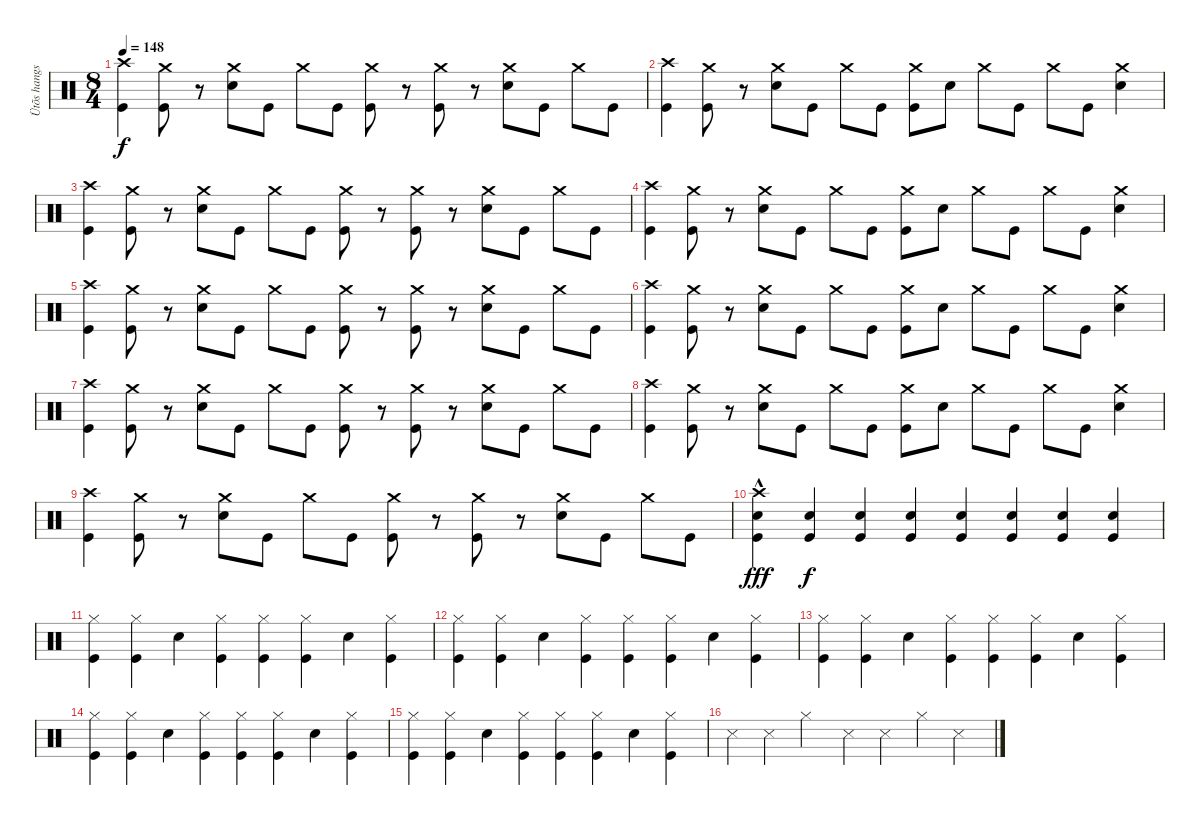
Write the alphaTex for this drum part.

\track ("Ütõs hangszer" "Ütõs hangs") {instrument percussion}
\staff {score}
\articulation defaults
\ts (8 4)
\tempo 148
\clef neutral
\ks c
("Crash high (hit)" "Kick (hit)").4{dy f} ("Crash medium (hit)" "Kick (hit)").8 r.8 ("Crash medium (hit)" "Electric Snare (hit)").8 "Kick (hit)".8 "Crash medium (hit)".8 "Kick (hit)".8 ("Crash medium (hit)" "Kick (hit)").8 r.8 ("Crash medium (hit)" "Kick (hit)").8 r.8 ("Crash medium (hit)" "Electric Snare (hit)").8 "Kick (hit)".8 "Crash medium (hit)".8 "Kick (hit)".8 |
("Crash high (hit)" "Kick (hit)").4 ("Crash medium (hit)" "Kick (hit)").8 r.8 ("Crash medium (hit)" "Electric Snare (hit)").8 "Kick (hit)".8 "Crash medium (hit)".8 "Kick (hit)".8 ("Crash medium (hit)" "Kick (hit)").8 "Electric Snare (hit)".8 "Crash medium (hit)".8 "Kick (hit)".8 "Crash medium (hit)".8 "Kick (hit)".8 ("Crash medium (hit)" "Electric Snare (hit)").4 |
("Crash high (hit)" "Kick (hit)").4 ("Crash medium (hit)" "Kick (hit)").8 r.8 ("Crash medium (hit)" "Electric Snare (hit)").8 "Kick (hit)".8 "Crash medium (hit)".8 "Kick (hit)".8 ("Crash medium (hit)" "Kick (hit)").8 r.8 ("Crash medium (hit)" "Kick (hit)").8 r.8 ("Crash medium (hit)" "Electric Snare (hit)").8 "Kick (hit)".8 "Crash medium (hit)".8 "Kick (hit)".8 |
("Crash high (hit)" "Kick (hit)").4 ("Crash medium (hit)" "Kick (hit)").8 r.8 ("Crash medium (hit)" "Electric Snare (hit)").8 "Kick (hit)".8 "Crash medium (hit)".8 "Kick (hit)".8 ("Crash medium (hit)" "Kick (hit)").8 "Electric Snare (hit)".8 "Crash medium (hit)".8 "Kick (hit)".8 "Crash medium (hit)".8 "Kick (hit)".8 ("Crash medium (hit)" "Electric Snare (hit)").4 |
("Crash high (hit)" "Kick (hit)").4 ("Crash medium (hit)" "Kick (hit)").8 r.8 ("Crash medium (hit)" "Electric Snare (hit)").8 "Kick (hit)".8 "Crash medium (hit)".8 "Kick (hit)".8 ("Crash medium (hit)" "Kick (hit)").8 r.8 ("Crash medium (hit)" "Kick (hit)").8 r.8 ("Crash medium (hit)" "Electric Snare (hit)").8 "Kick (hit)".8 "Crash medium (hit)".8 "Kick (hit)".8 |
("Crash high (hit)" "Kick (hit)").4 ("Crash medium (hit)" "Kick (hit)").8 r.8 ("Crash medium (hit)" "Electric Snare (hit)").8 "Kick (hit)".8 "Crash medium (hit)".8 "Kick (hit)".8 ("Crash medium (hit)" "Kick (hit)").8 "Electric Snare (hit)".8 "Crash medium (hit)".8 "Kick (hit)".8 "Crash medium (hit)".8 "Kick (hit)".8 ("Crash medium (hit)" "Electric Snare (hit)").4 |
("Crash high (hit)" "Kick (hit)").4 ("Crash medium (hit)" "Kick (hit)").8 r.8 ("Crash medium (hit)" "Electric Snare (hit)").8 "Kick (hit)".8 "Crash medium (hit)".8 "Kick (hit)".8 ("Crash medium (hit)" "Kick (hit)").8 r.8 ("Crash medium (hit)" "Kick (hit)").8 r.8 ("Crash medium (hit)" "Electric Snare (hit)").8 "Kick (hit)".8 "Crash medium (hit)".8 "Kick (hit)".8 |
("Crash high (hit)" "Kick (hit)").4 ("Crash medium (hit)" "Kick (hit)").8 r.8 ("Crash medium (hit)" "Electric Snare (hit)").8 "Kick (hit)".8 "Crash medium (hit)".8 "Kick (hit)".8 ("Crash medium (hit)" "Kick (hit)").8 "Electric Snare (hit)".8 "Crash medium (hit)".8 "Kick (hit)".8 "Crash medium (hit)".8 "Kick (hit)".8 ("Crash medium (hit)" "Electric Snare (hit)").4 |
("Crash high (hit)" "Kick (hit)").4 ("Crash medium (hit)" "Kick (hit)").8 r.8 ("Crash medium (hit)" "Electric Snare (hit)").8 "Kick (hit)".8 "Crash medium (hit)".8 "Kick (hit)".8 ("Crash medium (hit)" "Kick (hit)").8 r.8 ("Crash medium (hit)" "Kick (hit)").8 r.8 ("Crash medium (hit)" "Electric Snare (hit)").8 "Kick (hit)".8 "Crash medium (hit)".8 "Kick (hit)".8 |
("Crash high (hit)"{hac} "Electric Snare (hit)" "Kick (hit)").4{dy fff} ("Electric Snare (hit)" "Kick (hit)").4{dy f} ("Electric Snare (hit)" "Kick (hit)").4 ("Electric Snare (hit)" "Kick (hit)").4 ("Electric Snare (hit)" "Kick (hit)").4 ("Electric Snare (hit)" "Kick (hit)").4 ("Electric Snare (hit)" "Kick (hit)").4 ("Electric Snare (hit)" "Kick (hit)").4 |
("Hi-Hat (closed)" "Kick (hit)").4 ("Hi-Hat (closed)" "Kick (hit)").4 "Electric Snare (hit)".4 ("Hi-Hat (closed)" "Kick (hit)").4 ("Hi-Hat (closed)" "Kick (hit)").4 ("Hi-Hat (closed)" "Kick (hit)").4 "Electric Snare (hit)".4 ("Hi-Hat (closed)" "Kick (hit)").4 |
("Hi-Hat (closed)" "Kick (hit)").4 ("Hi-Hat (closed)" "Kick (hit)").4 "Electric Snare (hit)".4 ("Hi-Hat (closed)" "Kick (hit)").4 ("Hi-Hat (closed)" "Kick (hit)").4 ("Hi-Hat (closed)" "Kick (hit)").4 "Electric Snare (hit)".4 ("Hi-Hat (closed)" "Kick (hit)").4 |
("Hi-Hat (closed)" "Kick (hit)").4 ("Hi-Hat (closed)" "Kick (hit)").4 "Electric Snare (hit)".4 ("Hi-Hat (closed)" "Kick (hit)").4 ("Hi-Hat (closed)" "Kick (hit)").4 ("Hi-Hat (closed)" "Kick (hit)").4 "Electric Snare (hit)".4 ("Hi-Hat (closed)" "Kick (hit)").4 |
("Hi-Hat (closed)" "Kick (hit)").4 ("Hi-Hat (closed)" "Kick (hit)").4 "Electric Snare (hit)".4 ("Hi-Hat (closed)" "Kick (hit)").4 ("Hi-Hat (closed)" "Kick (hit)").4 ("Hi-Hat (closed)" "Kick (hit)").4 "Electric Snare (hit)".4 ("Hi-Hat (closed)" "Kick (hit)").4 |
("Hi-Hat (closed)" "Kick (hit)").4 ("Hi-Hat (closed)" "Kick (hit)").4 "Electric Snare (hit)".4 ("Hi-Hat (closed)" "Kick (hit)").4 ("Hi-Hat (closed)" "Kick (hit)").4 ("Hi-Hat (closed)" "Kick (hit)").4 "Electric Snare (hit)".4 ("Hi-Hat (closed)" "Kick (hit)").4 |
"Snare (side stick) 3".4 "Snare (side stick) 3".4 "Hi-Hat (closed)".2 "Snare (side stick) 3".4 "Snare (side stick) 3".4 "Hi-Hat (closed)".4 "Snare (side stick) 3".4
